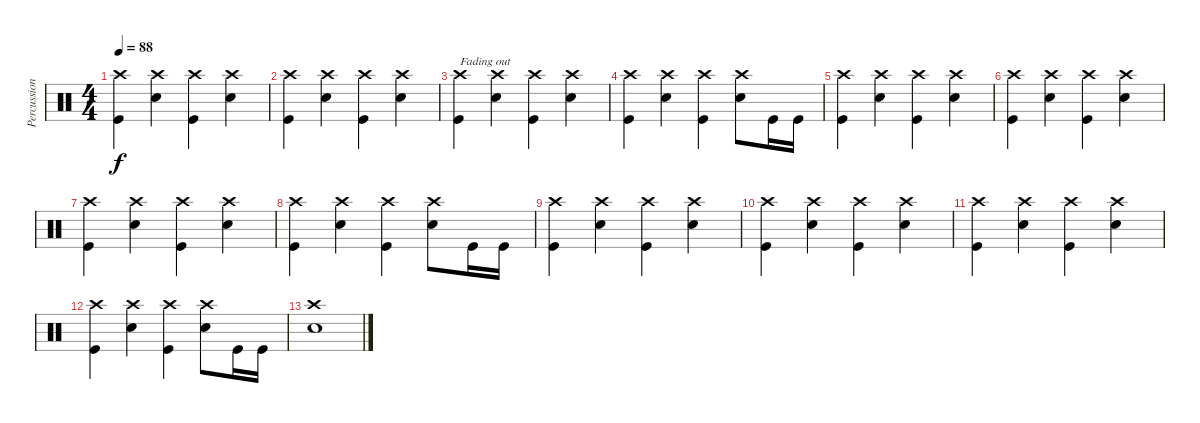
\track ("Percussion" "Percussion") {instrument percussion}
\staff {score}
\articulation defaults
\ts (4 4)
\tempo 88
\clef neutral
\ks c
("Kick (hit)" "Crash high (hit)").4{dy f} ("Snare (hit) 2" "Crash high (hit)").4 ("Kick (hit)" "Crash high (hit)").4 ("Snare (hit) 2" "Crash high (hit)").4 |
("Kick (hit)" "Crash high (hit)").4 ("Snare (hit) 2" "Crash high (hit)").4 ("Kick (hit)" "Crash high (hit)").4 ("Snare (hit) 2" "Crash high (hit)").4 |
("Kick (hit)" "Crash high (hit)").4{txt "Fading out"} ("Snare (hit) 2" "Crash high (hit)").4 ("Kick (hit)" "Crash high (hit)").4 ("Snare (hit) 2" "Crash high (hit)").4 |
("Kick (hit)" "Crash high (hit)").4 ("Snare (hit) 2" "Crash high (hit)").4 ("Kick (hit)" "Crash high (hit)").4 ("Snare (hit) 2" "Crash high (hit)").8 "Kick (hit)".16 "Kick (hit)".16 |
("Kick (hit)" "Crash high (hit)").4 ("Snare (hit) 2" "Crash high (hit)").4 ("Kick (hit)" "Crash high (hit)").4 ("Snare (hit) 2" "Crash high (hit)").4 |
("Kick (hit)" "Crash high (hit)").4 ("Snare (hit) 2" "Crash high (hit)").4 ("Kick (hit)" "Crash high (hit)").4 ("Snare (hit) 2" "Crash high (hit)").4 |
("Kick (hit)" "Crash high (hit)").4 ("Snare (hit) 2" "Crash high (hit)").4 ("Kick (hit)" "Crash high (hit)").4 ("Snare (hit) 2" "Crash high (hit)").4 |
("Kick (hit)" "Crash high (hit)").4 ("Snare (hit) 2" "Crash high (hit)").4 ("Kick (hit)" "Crash high (hit)").4 ("Snare (hit) 2" "Crash high (hit)").8 "Kick (hit)".16 "Kick (hit)".16 |
("Kick (hit)" "Crash high (hit)").4 ("Snare (hit) 2" "Crash high (hit)").4 ("Kick (hit)" "Crash high (hit)").4 ("Snare (hit) 2" "Crash high (hit)").4 |
("Kick (hit)" "Crash high (hit)").4 ("Snare (hit) 2" "Crash high (hit)").4 ("Kick (hit)" "Crash high (hit)").4 ("Snare (hit) 2" "Crash high (hit)").4 |
("Kick (hit)" "Crash high (hit)").4 ("Snare (hit) 2" "Crash high (hit)").4 ("Kick (hit)" "Crash high (hit)").4 ("Snare (hit) 2" "Crash high (hit)").4 |
("Kick (hit)" "Crash high (hit)").4 ("Snare (hit) 2" "Crash high (hit)").4 ("Kick (hit)" "Crash high (hit)").4 ("Snare (hit) 2" "Crash high (hit)").8 "Kick (hit)".16 "Kick (hit)".16 |
("Snare (hit) 2" "Crash high (hit)").1
